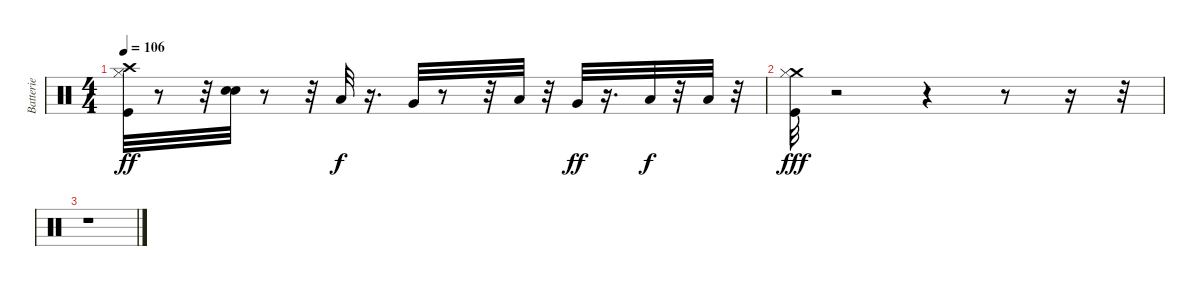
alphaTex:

\track ("Batterie" "Batterie") {instrument percussion}
\staff {score}
\articulation defaults
\ts (4 4)
\tempo 106
\clef neutral
\ks c
("Kick (hit)" "Hi-Hat (closed)" "Crash high (hit)").32{dy ff} r.8 r.32 ("Snare (hit) 2" "Snare (hit) 2").32 r.8 r.32 "Low Tom (hit)".32{dy f} r.16{d} "Very Low Tom (hit)".32 r.8 r.32 "Low Tom (hit)".32 r.32 "Very Low Tom (hit)".32{dy ff} r.16{d} "Low Floor Tom (hit)".32{dy f} r.32 "Low Floor Tom (hit)".32 r.32 |
("Crash medium (hit)" "Hi-Hat (closed)" "Kick (hit)").32{dy fff} r.2 r.4 r.8 r.16 r.32 |
r.1
